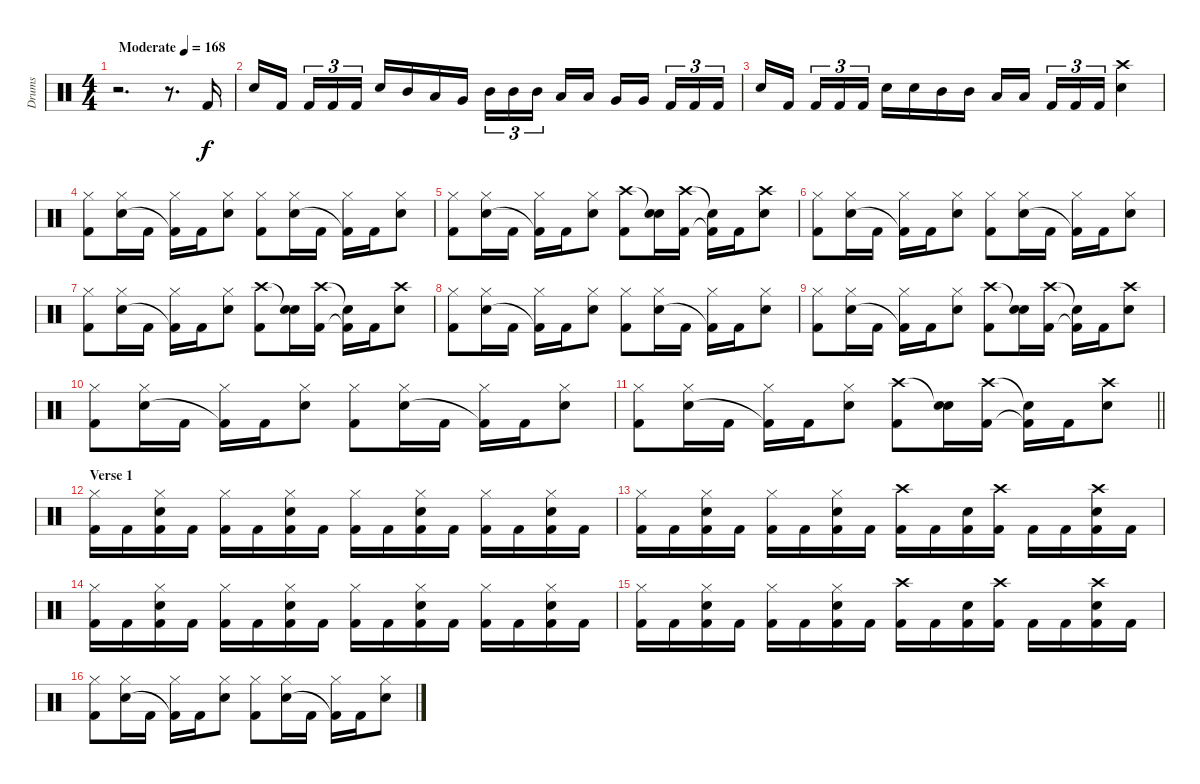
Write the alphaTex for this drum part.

\track ("Drums" "Drums") {instrument percussion}
\staff {score}
\articulation defaults
\ts (4 4)
\tempo (168 "Moderate")
\clef neutral
\ks c
r.2{d dy f} r.8{d} "Kick (hit) 2".16 |
"Electric Snare (hit)".16 "Kick (hit) 2".16{beam splitsecondary} "Kick (hit) 2".16{tu (3 2)} "Kick (hit) 2".16{tu (3 2)} "Kick (hit) 2".16{tu (3 2)} "Electric Snare (hit)".16 "Mid Tom (hit)".16 "Low Tom (hit)".16 "Very Low Tom (hit)".16 "Mid Tom (hit)".16{tu (3 2)} "Mid Tom (hit)".16{tu (3 2)} "Mid Tom (hit)".16{tu (3 2) beam splitsecondary} "Low Tom (hit)".16 "Low Tom (hit)".16 "Very Low Tom (hit)".16 "Very Low Tom (hit)".16{beam splitsecondary} "Kick (hit) 2".16{tu (3 2)} "Kick (hit) 2".16{tu (3 2)} "Kick (hit) 2".16{tu (3 2)} |
"Electric Snare (hit)".16 "Kick (hit) 2".16{beam splitsecondary} "Kick (hit) 2".16{tu (3 2)} "Kick (hit) 2".16{tu (3 2)} "Kick (hit) 2".16{tu (3 2)} "Electric Snare (hit)".16 "Electric Snare (hit)".16 "Mid Tom (hit)".16 "Mid Tom (hit)".16 "Low Tom (hit)".16 "Low Tom (hit)".16{beam splitsecondary} "Kick (hit) 2".16{tu (3 2)} "Kick (hit) 2".16{tu (3 2)} "Kick (hit) 2".16{tu (3 2)} ("Crash high (hit)" "Electric Snare (hit)").4 |
("Hi-Hat (closed)" "Kick (hit) 2").8 ("Hi-Hat (closed)" "Electric Snare (hit)").16 "Kick (hit) 2".16 ("Hi-Hat (closed)" "Kick (hit) 2"{t}).16 "Kick (hit) 2".16 ("Hi-Hat (closed)" "Electric Snare (hit)").8 ("Hi-Hat (closed)" "Kick (hit) 2").8 ("Hi-Hat (closed)" "Electric Snare (hit)").16 "Kick (hit) 2".16 ("Hi-Hat (closed)" "Kick (hit) 2"{t}).16 "Kick (hit) 2".16 ("Hi-Hat (closed)" "Electric Snare (hit)").8 |
("Hi-Hat (closed)" "Kick (hit) 2").8 ("Hi-Hat (closed)" "Electric Snare (hit)").16 "Kick (hit) 2".16 ("Hi-Hat (closed)" "Kick (hit) 2"{t}).16 "Kick (hit) 2".16 ("Hi-Hat (closed)" "Electric Snare (hit)").8 ("Crash high (hit)" "Kick (hit) 2").8 ("Snare (hit)"{t} "Electric Snare (hit)").16 ("Crash high (hit)" "Kick (hit) 2").16 ("Snare (hit)"{t} "Kick (hit) 2"{t}).16 "Kick (hit) 2".16 ("Crash high (hit)" "Electric Snare (hit)").8 |
("Hi-Hat (closed)" "Kick (hit) 2").8 ("Hi-Hat (closed)" "Electric Snare (hit)").16 "Kick (hit) 2".16 ("Hi-Hat (closed)" "Kick (hit) 2"{t}).16 "Kick (hit) 2".16 ("Hi-Hat (closed)" "Electric Snare (hit)").8 ("Hi-Hat (closed)" "Kick (hit) 2").8 ("Hi-Hat (closed)" "Electric Snare (hit)").16 "Kick (hit) 2".16 ("Hi-Hat (closed)" "Kick (hit) 2"{t}).16 "Kick (hit) 2".16 ("Hi-Hat (closed)" "Electric Snare (hit)").8 |
("Hi-Hat (closed)" "Kick (hit) 2").8 ("Hi-Hat (closed)" "Electric Snare (hit)").16 "Kick (hit) 2".16 ("Hi-Hat (closed)" "Kick (hit) 2"{t}).16 "Kick (hit) 2".16 ("Hi-Hat (closed)" "Electric Snare (hit)").8 ("Crash high (hit)" "Kick (hit) 2").8 ("Snare (hit)"{t} "Electric Snare (hit)").16 ("Crash high (hit)" "Kick (hit) 2").16 ("Snare (hit)"{t} "Kick (hit) 2"{t}).16 "Kick (hit) 2".16 ("Crash high (hit)" "Electric Snare (hit)").8 |
("Hi-Hat (closed)" "Kick (hit) 2").8 ("Hi-Hat (closed)" "Electric Snare (hit)").16 "Kick (hit) 2".16 ("Hi-Hat (closed)" "Kick (hit) 2"{t}).16 "Kick (hit) 2".16 ("Hi-Hat (closed)" "Electric Snare (hit)").8 ("Hi-Hat (closed)" "Kick (hit) 2").8 ("Hi-Hat (closed)" "Electric Snare (hit)").16 "Kick (hit) 2".16 ("Hi-Hat (closed)" "Kick (hit) 2"{t}).16 "Kick (hit) 2".16 ("Hi-Hat (closed)" "Electric Snare (hit)").8 |
("Hi-Hat (closed)" "Kick (hit) 2").8 ("Hi-Hat (closed)" "Electric Snare (hit)").16 "Kick (hit) 2".16 ("Hi-Hat (closed)" "Kick (hit) 2"{t}).16 "Kick (hit) 2".16 ("Hi-Hat (closed)" "Electric Snare (hit)").8 ("Crash high (hit)" "Kick (hit) 2").8 ("Snare (hit)"{t} "Electric Snare (hit)").16 ("Crash high (hit)" "Kick (hit) 2").16 ("Snare (hit)"{t} "Kick (hit) 2"{t}).16 "Kick (hit) 2".16 ("Crash high (hit)" "Electric Snare (hit)").8 |
("Hi-Hat (closed)" "Kick (hit) 2").8 ("Hi-Hat (closed)" "Electric Snare (hit)").16 "Kick (hit) 2".16 ("Hi-Hat (closed)" "Kick (hit) 2"{t}).16 "Kick (hit) 2".16 ("Hi-Hat (closed)" "Electric Snare (hit)").8 ("Hi-Hat (closed)" "Kick (hit) 2").8 ("Hi-Hat (closed)" "Electric Snare (hit)").16 "Kick (hit) 2".16 ("Hi-Hat (closed)" "Kick (hit) 2"{t}).16 "Kick (hit) 2".16 ("Hi-Hat (closed)" "Electric Snare (hit)").8 |
\barLineRight lightlight
("Hi-Hat (closed)" "Kick (hit) 2").8 ("Hi-Hat (closed)" "Electric Snare (hit)").16 "Kick (hit) 2".16 ("Hi-Hat (closed)" "Kick (hit) 2"{t}).16 "Kick (hit) 2".16 ("Hi-Hat (closed)" "Electric Snare (hit)").8 ("Crash high (hit)" "Kick (hit) 2").8 ("Snare (hit)"{t} "Electric Snare (hit)").16 ("Crash high (hit)" "Kick (hit) 2").16 ("Snare (hit)"{t} "Kick (hit) 2"{t}).16 "Kick (hit) 2".16 ("Crash high (hit)" "Electric Snare (hit)").8 |
\section ("" "Verse 1")
("Hi-Hat (closed)" "Kick (hit) 2").16 "Kick (hit) 2".16 ("Hi-Hat (closed)" "Electric Snare (hit)" "Kick (hit) 2").16 "Kick (hit) 2".16 ("Hi-Hat (closed)" "Kick (hit) 2").16 "Kick (hit) 2".16 ("Hi-Hat (closed)" "Electric Snare (hit)" "Kick (hit) 2").16 "Kick (hit) 2".16 ("Hi-Hat (closed)" "Kick (hit) 2").16 "Kick (hit) 2".16 ("Hi-Hat (closed)" "Electric Snare (hit)" "Kick (hit) 2").16 "Kick (hit) 2".16 ("Hi-Hat (closed)" "Kick (hit) 2").16 "Kick (hit) 2".16 ("Hi-Hat (closed)" "Electric Snare (hit)" "Kick (hit) 2").16 "Kick (hit) 2".16 |
("Hi-Hat (closed)" "Kick (hit) 2").16 "Kick (hit) 2".16 ("Hi-Hat (closed)" "Electric Snare (hit)" "Kick (hit) 2").16 "Kick (hit) 2".16 ("Hi-Hat (closed)" "Kick (hit) 2").16 "Kick (hit) 2".16 ("Hi-Hat (closed)" "Electric Snare (hit)" "Kick (hit) 2").16 "Kick (hit) 2".16 ("Crash high (hit)" "Kick (hit) 2").16 "Kick (hit) 2".16 ("Electric Snare (hit)" "Kick (hit) 2").16 ("Crash high (hit)" "Kick (hit) 2").16 "Kick (hit) 2".16 "Kick (hit) 2".16 ("Crash high (hit)" "Electric Snare (hit)" "Kick (hit) 2").16 "Kick (hit) 2".16 |
("Hi-Hat (closed)" "Kick (hit) 2").16 "Kick (hit) 2".16 ("Hi-Hat (closed)" "Electric Snare (hit)" "Kick (hit) 2").16 "Kick (hit) 2".16 ("Hi-Hat (closed)" "Kick (hit) 2").16 "Kick (hit) 2".16 ("Hi-Hat (closed)" "Electric Snare (hit)" "Kick (hit) 2").16 "Kick (hit) 2".16 ("Hi-Hat (closed)" "Kick (hit) 2").16 "Kick (hit) 2".16 ("Hi-Hat (closed)" "Electric Snare (hit)" "Kick (hit) 2").16 "Kick (hit) 2".16 ("Hi-Hat (closed)" "Kick (hit) 2").16 "Kick (hit) 2".16 ("Hi-Hat (closed)" "Electric Snare (hit)" "Kick (hit) 2").16 "Kick (hit) 2".16 |
("Hi-Hat (closed)" "Kick (hit) 2").16 "Kick (hit) 2".16 ("Hi-Hat (closed)" "Electric Snare (hit)" "Kick (hit) 2").16 "Kick (hit) 2".16 ("Hi-Hat (closed)" "Kick (hit) 2").16 "Kick (hit) 2".16 ("Hi-Hat (closed)" "Electric Snare (hit)" "Kick (hit) 2").16 "Kick (hit) 2".16 ("Crash high (hit)" "Kick (hit) 2").16 "Kick (hit) 2".16 ("Electric Snare (hit)" "Kick (hit) 2").16 ("Crash high (hit)" "Kick (hit) 2").16 "Kick (hit) 2".16 "Kick (hit) 2".16 ("Crash high (hit)" "Electric Snare (hit)" "Kick (hit) 2").16 "Kick (hit) 2".16 |
("Hi-Hat (closed)" "Kick (hit) 2").8 ("Hi-Hat (closed)" "Electric Snare (hit)").16 "Kick (hit) 2".16 ("Hi-Hat (closed)" "Kick (hit) 2"{t}).16 "Kick (hit) 2".16 ("Hi-Hat (closed)" "Electric Snare (hit)").8 ("Hi-Hat (closed)" "Kick (hit) 2").8 ("Hi-Hat (closed)" "Electric Snare (hit)").16 "Kick (hit) 2".16 ("Hi-Hat (closed)" "Kick (hit) 2"{t}).16 "Kick (hit) 2".16 ("Hi-Hat (closed)" "Electric Snare (hit)").8
